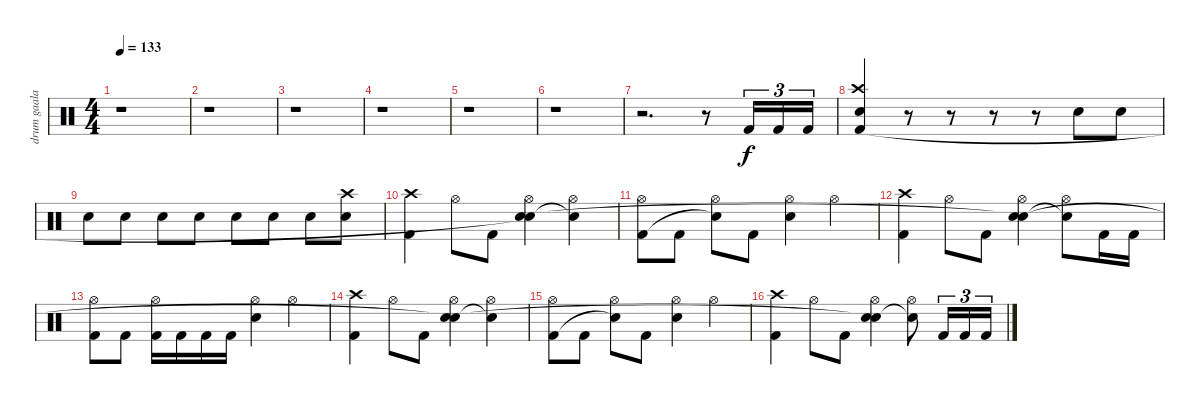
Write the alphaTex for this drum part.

\track ("drum gaalaas" "drum gaala") {instrument percussion}
\staff {score}
\articulation defaults
\ts (4 4)
\tempo 133
\clef neutral
\ks c
r.1{dy f} |
r.1 |
r.1 |
r.1 |
r.1 |
r.1 |
r.2{d} r.8 "Kick (hit) 2".16{tu (3 2)} "Kick (hit) 2".16{tu (3 2)} "Kick (hit) 2".16{tu (3 2)} |
("Crash high (hit)" "Snare (hit) 2" "Kick (hit) 2").4 r.8 r.8 r.8 r.8 "Snare (hit) 2".8{volume 4} "Snare (hit) 2".8{volume 13} |
"Snare (hit) 2".8 "Snare (hit) 2".8 "Snare (hit) 2".8 "Snare (hit) 2".8 "Snare (hit) 2".8 "Snare (hit) 2".8 "Snare (hit) 2".8 ("Crash high (hit)" "Snare (hit) 2").8 |
("Crash high (hit)" "Kick (hit) 2").4 "Hi-Hat (open)".8 "Kick (hit) 2".8 ("Hi-Hat (open)" "Snare (hit) 2" "Snare (hit)"{t}).4 ("Hi-Hat (open)" "Snare (hit)"{t}).4 |
("Hi-Hat (open)" "Kick (hit) 2").8 "Kick (hit) 2".8 ("Hi-Hat (open)" "Snare (hit)"{t}).8 "Kick (hit) 2".8 ("Hi-Hat (open)" "Snare (hit) 2").4 "Hi-Hat (open)".4 |
("Crash high (hit)" "Kick (hit) 2").4 "Hi-Hat (open)".8 "Kick (hit) 2".8 ("Hi-Hat (open)" "Snare (hit) 2" "Snare (hit)"{t}).4 ("Hi-Hat (open)" "Snare (hit)"{t}).8 "Kick (hit) 2".16 "Kick (hit) 2".16 |
("Hi-Hat (open)" "Kick (hit) 2").8 "Kick (hit) 2".8 ("Hi-Hat (open)" "Kick (hit) 2").16 "Kick (hit) 2".16 "Kick (hit) 2".16 "Kick (hit) 2".16 ("Hi-Hat (open)" "Snare (hit) 2").4 "Hi-Hat (open)".4 |
("Crash high (hit)" "Kick (hit) 2").4 "Hi-Hat (open)".8 "Kick (hit) 2".8 ("Hi-Hat (open)" "Snare (hit) 2" "Snare (hit)"{t}).4 ("Hi-Hat (open)" "Snare (hit)"{t}).4 |
("Hi-Hat (open)" "Kick (hit) 2").8 "Kick (hit) 2".8 ("Hi-Hat (open)" "Snare (hit)"{t}).8 "Kick (hit) 2".8 ("Hi-Hat (open)" "Snare (hit) 2").4 "Hi-Hat (open)".4 |
("Crash high (hit)" "Kick (hit) 2").4 "Hi-Hat (open)".8 "Kick (hit) 2".8 ("Hi-Hat (open)" "Snare (hit) 2" "Snare (hit)"{t}).4 ("Hi-Hat (open)" "Snare (hit)"{t}).8 "Kick (hit) 2".16{tu (3 2)} "Kick (hit) 2".16{tu (3 2)} "Kick (hit) 2".16{tu (3 2)}
